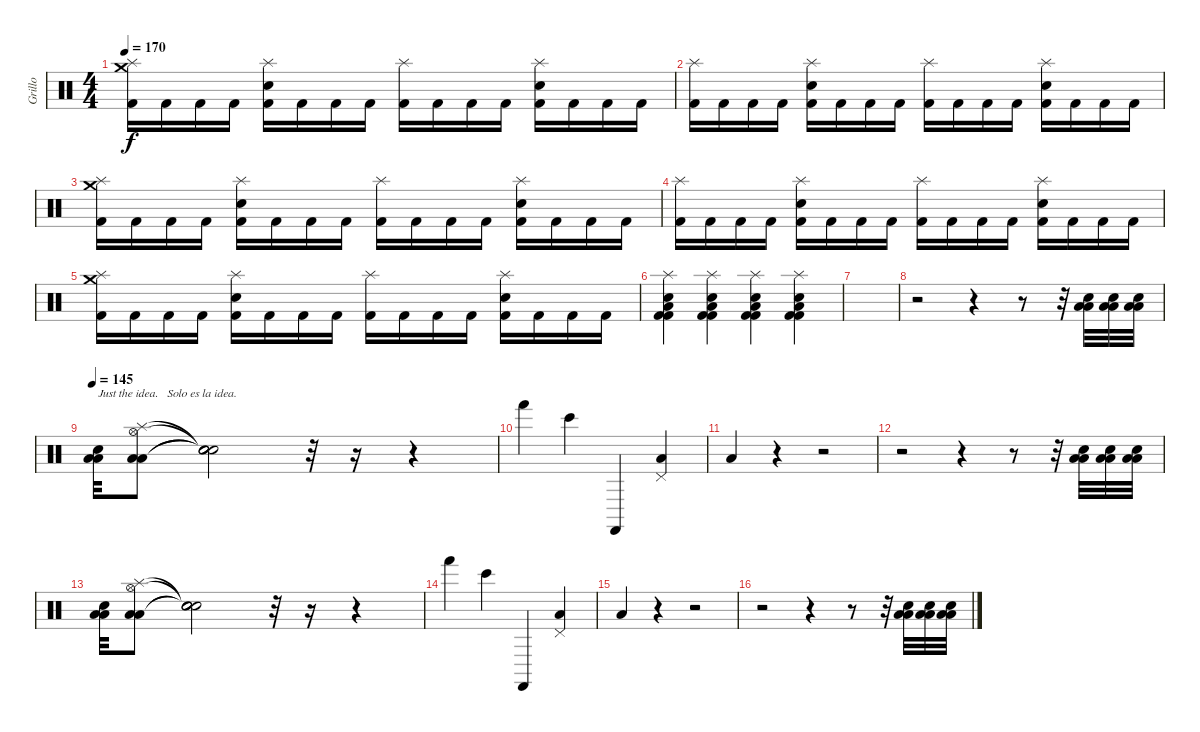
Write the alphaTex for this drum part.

\track ("Grillo" "Grillo") {instrument percussion}
\staff {score}
\articulation defaults
\ts (4 4)
\tempo 170
\clef neutral
\ks c
("Splash (hit)" "Crash medium (hit)" "Kick (hit) 2").16{dy f} "Kick (hit) 2".16 "Kick (hit) 2".16 "Kick (hit) 2".16 ("Electric Snare (hit)" "Splash (hit)" "Kick (hit) 2").16 "Kick (hit) 2".16 "Kick (hit) 2".16 "Kick (hit) 2".16 ("Splash (hit)" "Kick (hit) 2").16 "Kick (hit) 2".16 "Kick (hit) 2".16 "Kick (hit) 2".16 ("Electric Snare (hit)" "Splash (hit)" "Kick (hit) 2").16 "Kick (hit) 2".16 "Kick (hit) 2".16 "Kick (hit) 2".16 |
("Splash (hit)" "Kick (hit) 2").16 "Kick (hit) 2".16 "Kick (hit) 2".16 "Kick (hit) 2".16 ("Electric Snare (hit)" "Splash (hit)" "Kick (hit) 2").16 "Kick (hit) 2".16 "Kick (hit) 2".16 "Kick (hit) 2".16 ("Splash (hit)" "Kick (hit) 2").16 "Kick (hit) 2".16 "Kick (hit) 2".16 "Kick (hit) 2".16 ("Electric Snare (hit)" "Splash (hit)" "Kick (hit) 2").16 "Kick (hit) 2".16 "Kick (hit) 2".16 "Kick (hit) 2".16 |
("Splash (hit)" "Crash medium (hit)" "Kick (hit) 2").16 "Kick (hit) 2".16 "Kick (hit) 2".16 "Kick (hit) 2".16 ("Electric Snare (hit)" "Splash (hit)" "Kick (hit) 2").16 "Kick (hit) 2".16 "Kick (hit) 2".16 "Kick (hit) 2".16 ("Splash (hit)" "Kick (hit) 2").16 "Kick (hit) 2".16 "Kick (hit) 2".16 "Kick (hit) 2".16 ("Electric Snare (hit)" "Splash (hit)" "Kick (hit) 2").16 "Kick (hit) 2".16 "Kick (hit) 2".16 "Kick (hit) 2".16 |
("Splash (hit)" "Kick (hit) 2").16 "Kick (hit) 2".16 "Kick (hit) 2".16 "Kick (hit) 2".16 ("Electric Snare (hit)" "Splash (hit)" "Kick (hit) 2").16 "Kick (hit) 2".16 "Kick (hit) 2".16 "Kick (hit) 2".16 ("Splash (hit)" "Kick (hit) 2").16 "Kick (hit) 2".16 "Kick (hit) 2".16 "Kick (hit) 2".16 ("Electric Snare (hit)" "Splash (hit)" "Kick (hit) 2").16 "Kick (hit) 2".16 "Kick (hit) 2".16 "Kick (hit) 2".16 |
("Splash (hit)" "Crash medium (hit)" "Kick (hit) 2").16 "Kick (hit) 2".16 "Kick (hit) 2".16 "Kick (hit) 2".16 ("Electric Snare (hit)" "Splash (hit)" "Kick (hit) 2").16 "Kick (hit) 2".16 "Kick (hit) 2".16 "Kick (hit) 2".16 ("Splash (hit)" "Kick (hit) 2").16 "Kick (hit) 2".16 "Kick (hit) 2".16 "Kick (hit) 2".16 ("Electric Snare (hit)" "Splash (hit)" "Kick (hit) 2").16 "Kick (hit) 2".16 "Kick (hit) 2".16 "Kick (hit) 2".16 |
("Snare (hit) 2" "Splash (hit)" "Low Tom (hit)" "Kick (hit) 2" "Kick (hit) 2").4 ("Snare (hit) 2" "Splash (hit)" "Low Tom (hit)" "Kick (hit) 2" "Kick (hit) 2").4 ("Snare (hit) 2" "Splash (hit)" "Low Tom (hit)" "Kick (hit) 2" "Kick (hit) 2").4 ("Snare (hit) 2" "Splash (hit)" "Low Tom (hit)" "Kick (hit) 2" "Kick (hit) 2").4 |
|
r.2 r.4 r.8 r.32 ("Low Floor Tom (hit)" "Low Tom (hit)" "Snare (hit) 2").32 ("Low Floor Tom (hit)" "Low Tom (hit)" "Snare (hit) 2").32 ("Low Floor Tom (hit)" "Low Tom (hit)" "Snare (hit) 2").32 |
\tempo 145
("Low Floor Tom (hit)" "Low Tom (hit)" "Snare (hit) 2").32{txt "Just the idea.   Solo es la idea."} ("Low Floor Tom (hit)" "Splash (hit)" "Low Tom (hit)" "Hi-Hat (open)").8 ("Snare (hit)"{t} "Snare (hit)"{t} "Snare (hit)"{t} "Snare (hit)"{t}).2 r.32 r.16 r.4 |
"Hand (hit)".4 "Bongo High (hit)".4 "Castanets (hit)".4 ("Pedal Hi-Hat (hit)" "Low Floor Tom (hit)").4 |
"Low Floor Tom (hit)".4 r.4 r.2 |
r.2 r.4 r.8 r.32 ("Low Floor Tom (hit)" "Low Tom (hit)" "Snare (hit) 2").32 ("Low Floor Tom (hit)" "Low Tom (hit)" "Snare (hit) 2").32 ("Low Floor Tom (hit)" "Low Tom (hit)" "Snare (hit) 2").32 |
("Low Floor Tom (hit)" "Low Tom (hit)" "Snare (hit) 2").32 ("Low Floor Tom (hit)" "Splash (hit)" "Low Tom (hit)" "Hi-Hat (open)").8 ("Snare (hit)"{t} "Snare (hit)"{t} "Snare (hit)"{t} "Snare (hit)"{t}).2 r.32 r.16 r.4 |
"Hand (hit)".4 "Bongo High (hit)".4 "Castanets (hit)".4 ("Pedal Hi-Hat (hit)" "Low Floor Tom (hit)").4 |
"Low Floor Tom (hit)".4 r.4 r.2 |
r.2 r.4 r.8 r.32 ("Low Floor Tom (hit)" "Low Tom (hit)" "Snare (hit) 2").32 ("Low Floor Tom (hit)" "Low Tom (hit)" "Snare (hit) 2").32 ("Low Floor Tom (hit)" "Low Tom (hit)" "Snare (hit) 2").32
